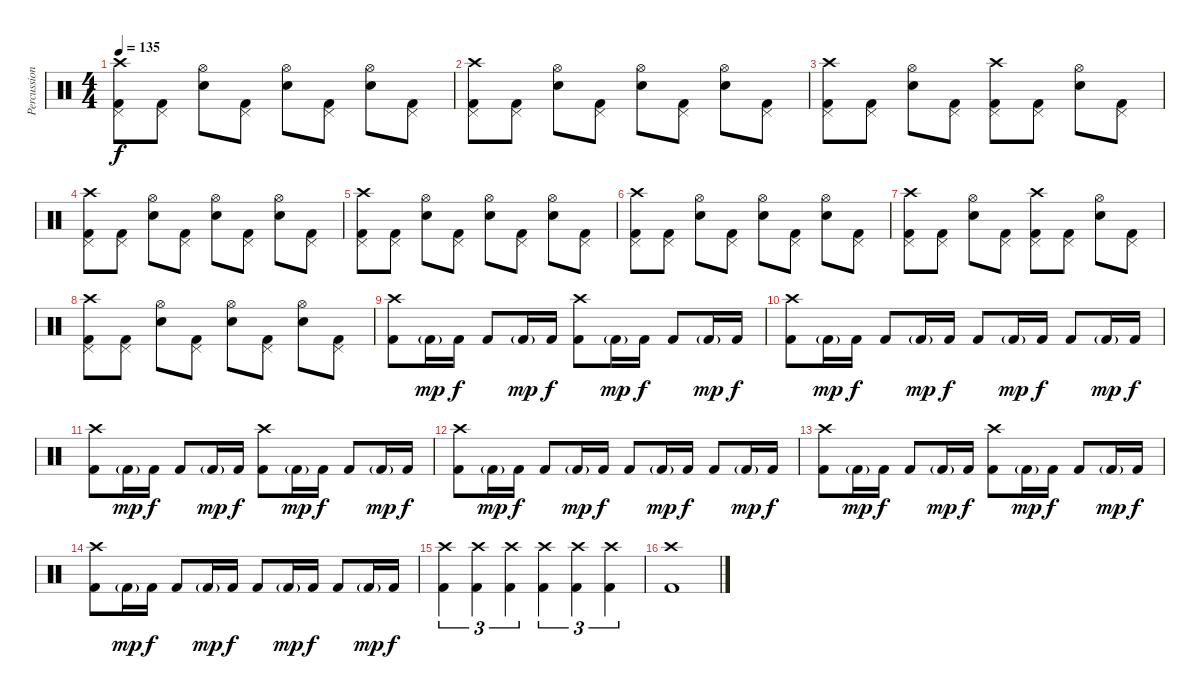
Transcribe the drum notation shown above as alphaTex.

\track ("Percussion" "Percussion") {instrument percussion}
\staff {score}
\articulation defaults
\ts (4 4)
\tempo 135
\clef neutral
\ks c
("Pedal Hi-Hat (hit)" "Kick (hit) 2" "Crash high (hit)").8{dy f} ("Pedal Hi-Hat (hit)" "Kick (hit) 2").8 ("Hi-Hat (open)" "Electric Snare (hit)").8 ("Pedal Hi-Hat (hit)" "Kick (hit) 2").8 ("Hi-Hat (open)" "Electric Snare (hit)").8 ("Pedal Hi-Hat (hit)" "Kick (hit) 2").8 ("Hi-Hat (open)" "Electric Snare (hit)").8 ("Pedal Hi-Hat (hit)" "Kick (hit) 2").8 |
("Pedal Hi-Hat (hit)" "Kick (hit) 2" "Crash high (hit)").8 ("Pedal Hi-Hat (hit)" "Kick (hit) 2").8 ("Hi-Hat (open)" "Electric Snare (hit)").8 ("Pedal Hi-Hat (hit)" "Kick (hit) 2").8 ("Hi-Hat (open)" "Electric Snare (hit)").8 ("Pedal Hi-Hat (hit)" "Kick (hit) 2").8 ("Hi-Hat (open)" "Electric Snare (hit)").8 ("Pedal Hi-Hat (hit)" "Kick (hit) 2").8 |
("Pedal Hi-Hat (hit)" "Kick (hit) 2" "Crash high (hit)").8 ("Pedal Hi-Hat (hit)" "Kick (hit) 2").8 ("Hi-Hat (open)" "Electric Snare (hit)").8 ("Pedal Hi-Hat (hit)" "Kick (hit) 2").8 ("Pedal Hi-Hat (hit)" "Kick (hit) 2" "Crash high (hit)").8 ("Pedal Hi-Hat (hit)" "Kick (hit) 2").8 ("Hi-Hat (open)" "Electric Snare (hit)").8 ("Pedal Hi-Hat (hit)" "Kick (hit) 2").8 |
("Pedal Hi-Hat (hit)" "Kick (hit) 2" "Crash high (hit)").8 ("Pedal Hi-Hat (hit)" "Kick (hit) 2").8 ("Hi-Hat (open)" "Electric Snare (hit)").8 ("Pedal Hi-Hat (hit)" "Kick (hit) 2").8 ("Hi-Hat (open)" "Electric Snare (hit)").8 ("Pedal Hi-Hat (hit)" "Kick (hit) 2").8 ("Hi-Hat (open)" "Electric Snare (hit)").8 ("Pedal Hi-Hat (hit)" "Kick (hit) 2").8 |
("Pedal Hi-Hat (hit)" "Kick (hit) 2" "Crash high (hit)").8 ("Pedal Hi-Hat (hit)" "Kick (hit) 2").8 ("Hi-Hat (open)" "Electric Snare (hit)").8 ("Pedal Hi-Hat (hit)" "Kick (hit) 2").8 ("Hi-Hat (open)" "Electric Snare (hit)").8 ("Pedal Hi-Hat (hit)" "Kick (hit) 2").8 ("Hi-Hat (open)" "Electric Snare (hit)").8 ("Pedal Hi-Hat (hit)" "Kick (hit) 2").8 |
("Pedal Hi-Hat (hit)" "Kick (hit) 2" "Crash high (hit)").8 ("Pedal Hi-Hat (hit)" "Kick (hit) 2").8 ("Hi-Hat (open)" "Electric Snare (hit)").8 ("Pedal Hi-Hat (hit)" "Kick (hit) 2").8 ("Hi-Hat (open)" "Electric Snare (hit)").8 ("Pedal Hi-Hat (hit)" "Kick (hit) 2").8 ("Hi-Hat (open)" "Electric Snare (hit)").8 ("Pedal Hi-Hat (hit)" "Kick (hit) 2").8 |
("Pedal Hi-Hat (hit)" "Kick (hit) 2" "Crash high (hit)").8 ("Pedal Hi-Hat (hit)" "Kick (hit) 2").8 ("Hi-Hat (open)" "Electric Snare (hit)").8 ("Pedal Hi-Hat (hit)" "Kick (hit) 2").8 ("Pedal Hi-Hat (hit)" "Kick (hit) 2" "Crash high (hit)").8 ("Pedal Hi-Hat (hit)" "Kick (hit) 2").8 ("Hi-Hat (open)" "Electric Snare (hit)").8 ("Pedal Hi-Hat (hit)" "Kick (hit) 2").8 |
("Pedal Hi-Hat (hit)" "Kick (hit) 2" "Crash high (hit)").8 ("Pedal Hi-Hat (hit)" "Kick (hit) 2").8 ("Hi-Hat (open)" "Electric Snare (hit)").8 ("Pedal Hi-Hat (hit)" "Kick (hit) 2").8 ("Hi-Hat (open)" "Electric Snare (hit)").8 ("Pedal Hi-Hat (hit)" "Kick (hit) 2").8 ("Hi-Hat (open)" "Electric Snare (hit)").8 ("Pedal Hi-Hat (hit)" "Kick (hit) 2").8 |
("Kick (hit) 2" "Crash high (hit)").8 "Kick (hit) 2"{g}.16{dy mp} "Kick (hit) 2".16{dy f} "Kick (hit) 2".8 "Kick (hit) 2"{g}.16{dy mp} "Kick (hit) 2".16{dy f} ("Kick (hit) 2" "Crash high (hit)").8 "Kick (hit) 2"{g}.16{dy mp} "Kick (hit) 2".16{dy f} "Kick (hit) 2".8 "Kick (hit) 2"{g}.16{dy mp} "Kick (hit) 2".16{dy f} |
("Kick (hit) 2" "Crash high (hit)").8 "Kick (hit) 2"{g}.16{dy mp} "Kick (hit) 2".16{dy f} "Kick (hit) 2".8 "Kick (hit) 2"{g}.16{dy mp} "Kick (hit) 2".16{dy f} "Kick (hit) 2".8 "Kick (hit) 2"{g}.16{dy mp} "Kick (hit) 2".16{dy f} "Kick (hit) 2".8 "Kick (hit) 2"{g}.16{dy mp} "Kick (hit) 2".16{dy f} |
("Kick (hit) 2" "Crash high (hit)").8 "Kick (hit) 2"{g}.16{dy mp} "Kick (hit) 2".16{dy f} "Kick (hit) 2".8 "Kick (hit) 2"{g}.16{dy mp} "Kick (hit) 2".16{dy f} ("Kick (hit) 2" "Crash high (hit)").8 "Kick (hit) 2"{g}.16{dy mp} "Kick (hit) 2".16{dy f} "Kick (hit) 2".8 "Kick (hit) 2"{g}.16{dy mp} "Kick (hit) 2".16{dy f} |
("Kick (hit) 2" "Crash high (hit)").8 "Kick (hit) 2"{g}.16{dy mp} "Kick (hit) 2".16{dy f} "Kick (hit) 2".8 "Kick (hit) 2"{g}.16{dy mp} "Kick (hit) 2".16{dy f} "Kick (hit) 2".8 "Kick (hit) 2"{g}.16{dy mp} "Kick (hit) 2".16{dy f} "Kick (hit) 2".8 "Kick (hit) 2"{g}.16{dy mp} "Kick (hit) 2".16{dy f} |
("Kick (hit) 2" "Crash high (hit)").8 "Kick (hit) 2"{g}.16{dy mp} "Kick (hit) 2".16{dy f} "Kick (hit) 2".8 "Kick (hit) 2"{g}.16{dy mp} "Kick (hit) 2".16{dy f} ("Kick (hit) 2" "Crash high (hit)").8 "Kick (hit) 2"{g}.16{dy mp} "Kick (hit) 2".16{dy f} "Kick (hit) 2".8 "Kick (hit) 2"{g}.16{dy mp} "Kick (hit) 2".16{dy f} |
("Kick (hit) 2" "Crash high (hit)").8 "Kick (hit) 2"{g}.16{dy mp} "Kick (hit) 2".16{dy f} "Kick (hit) 2".8 "Kick (hit) 2"{g}.16{dy mp} "Kick (hit) 2".16{dy f} "Kick (hit) 2".8 "Kick (hit) 2"{g}.16{dy mp} "Kick (hit) 2".16{dy f} "Kick (hit) 2".8 "Kick (hit) 2"{g}.16{dy mp} "Kick (hit) 2".16{dy f} |
("Kick (hit) 2" "Crash high (hit)").4{tu (3 2)} ("Kick (hit) 2" "Crash high (hit)").4{tu (3 2)} ("Kick (hit) 2" "Crash high (hit)").4{tu (3 2)} ("Kick (hit) 2" "Crash high (hit)").4{tu (3 2)} ("Kick (hit) 2" "Crash high (hit)").4{tu (3 2)} ("Kick (hit) 2" "Crash high (hit)").4{tu (3 2)} |
("Kick (hit) 2" "Crash high (hit)").1
